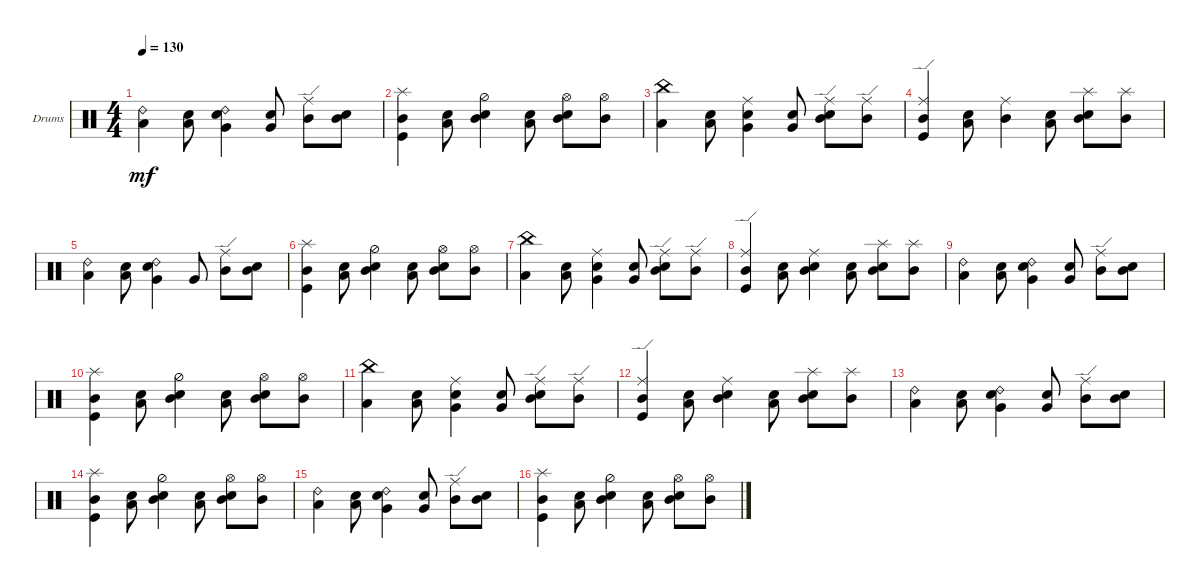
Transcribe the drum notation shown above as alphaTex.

\defaultSystemsLayout 4
\bracketExtendMode groupsimilarinstruments
\firstSystemTrackNameOrientation horizontal
\otherSystemsTrackNameOrientation horizontal
\track ("Drumkit" "Drums") {instrument percussion}
\staff {score}
\articulation defaults
\ts (4 4)
\tempo 130
\clef neutral
\ks c
("Low Tom (hit)" "Ride (bell) 2").4{dy mf} ("Low Tom (hit)" "Snare (hit) 2").8 ("Very Low Tom (hit)" "Snare (hit) 2" "Ride (bell) 2").4 ("Very Low Tom (hit)" "Snare (hit) 2").8 ("Mid Tom (hit)" "Ride (edge)").8 ("Mid Tom (hit)" "Snare (hit) 2").8 |
("Mid Tom (hit)" "Kick (hit)" "Splash (hit)").4 ("Low Tom (hit)" "Snare (hit) 2").8 ("Mid Tom (hit)" "Snare (hit) 2" "Hi-Hat (half)").4 ("Low Tom (hit)" "Snare (hit) 2").8 ("Mid Tom (hit)" "Snare (hit) 2" "Hi-Hat (open)").8 ("Mid Tom (hit)" "Hi-Hat (open)").8 |
("Low Tom (hit)" "China (hit)").4 ("Low Tom (hit)" "Snare (hit) 2").8 ("Very Low Tom (hit)" "Snare (hit) 2" "Ride (middle)").4 ("Very Low Tom (hit)" "Snare (hit) 2").8 ("Mid Tom (hit)" "Snare (hit) 2" "Ride (edge)").8 ("Mid Tom (hit)" "Ride (edge)").8 |
("Mid Tom (hit)" "Kick (hit)" "Ride (edge)").4 ("Low Tom (hit)" "Snare (hit) 2").8 ("Mid Tom (hit)" "Ride (middle)").4 ("Low Tom (hit)" "Snare (hit) 2").8 ("Mid Tom (hit)" "Snare (hit) 2" "Splash (hit)").8 ("Mid Tom (hit)" "Splash (hit)").8 |
("Low Tom (hit)" "Ride (bell) 2").4 ("Low Tom (hit)" "Snare (hit) 2").8 ("Very Low Tom (hit)" "Snare (hit) 2" "Ride (bell) 2").4 "Very Low Tom (hit)".8 ("Mid Tom (hit)" "Ride (edge)").8 ("Mid Tom (hit)" "Snare (hit) 2").8 |
("Mid Tom (hit)" "Kick (hit)" "Splash (hit)").4 ("Low Tom (hit)" "Snare (hit) 2").8 ("Mid Tom (hit)" "Snare (hit) 2" "Hi-Hat (half)").4 ("Low Tom (hit)" "Snare (hit) 2").8 ("Mid Tom (hit)" "Snare (hit) 2" "Hi-Hat (open)").8 ("Mid Tom (hit)" "Hi-Hat (open)").8 |
("Low Tom (hit)" "China (hit)").4 ("Low Tom (hit)" "Snare (hit) 2").8 ("Very Low Tom (hit)" "Snare (hit) 2" "Ride (middle)").4 ("Very Low Tom (hit)" "Snare (hit) 2").8 ("Mid Tom (hit)" "Snare (hit) 2" "Ride (edge)").8 ("Mid Tom (hit)" "Ride (edge)").8 |
("Mid Tom (hit)" "Kick (hit)" "Ride (edge)").4 ("Low Tom (hit)" "Snare (hit) 2").8 ("Mid Tom (hit)" "Snare (hit) 2" "Ride (middle)").4 ("Low Tom (hit)" "Snare (hit) 2").8 ("Mid Tom (hit)" "Snare (hit) 2" "Splash (hit)").8 ("Mid Tom (hit)" "Splash (hit)").8 |
("Low Tom (hit)" "Ride (bell) 2").4 ("Low Tom (hit)" "Snare (hit) 2").8 ("Very Low Tom (hit)" "Snare (hit) 2" "Ride (bell) 2").4 ("Very Low Tom (hit)" "Snare (hit) 2").8 ("Mid Tom (hit)" "Ride (edge)").8 ("Mid Tom (hit)" "Snare (hit) 2").8 |
("Mid Tom (hit)" "Kick (hit)" "Splash (hit)").4 ("Low Tom (hit)" "Snare (hit) 2").8 ("Mid Tom (hit)" "Snare (hit) 2" "Hi-Hat (half)").4 ("Low Tom (hit)" "Snare (hit) 2").8 ("Mid Tom (hit)" "Snare (hit) 2" "Hi-Hat (open)").8 ("Mid Tom (hit)" "Hi-Hat (open)").8 |
("Low Tom (hit)" "China (hit)").4 ("Low Tom (hit)" "Snare (hit) 2").8 ("Very Low Tom (hit)" "Snare (hit) 2" "Ride (middle)").4 ("Very Low Tom (hit)" "Snare (hit) 2").8 ("Mid Tom (hit)" "Snare (hit) 2" "Ride (edge)").8 ("Mid Tom (hit)" "Ride (edge)").8 |
("Mid Tom (hit)" "Kick (hit)" "Ride (edge)").4 ("Low Tom (hit)" "Snare (hit) 2").8 ("Mid Tom (hit)" "Snare (hit) 2" "Ride (middle)").4 ("Low Tom (hit)" "Snare (hit) 2").8 ("Mid Tom (hit)" "Snare (hit) 2" "Splash (hit)").8 ("Mid Tom (hit)" "Splash (hit)").8 |
("Low Tom (hit)" "Ride (bell) 2").4 ("Low Tom (hit)" "Snare (hit) 2").8 ("Very Low Tom (hit)" "Snare (hit) 2" "Ride (bell) 2").4 ("Very Low Tom (hit)" "Snare (hit) 2").8 ("Mid Tom (hit)" "Ride (edge)").8 ("Mid Tom (hit)" "Snare (hit) 2").8 |
("Mid Tom (hit)" "Kick (hit)" "Splash (hit)").4 ("Low Tom (hit)" "Snare (hit) 2").8 ("Mid Tom (hit)" "Snare (hit) 2" "Hi-Hat (half)").4 ("Low Tom (hit)" "Snare (hit) 2").8 ("Mid Tom (hit)" "Snare (hit) 2" "Hi-Hat (open)").8 ("Mid Tom (hit)" "Hi-Hat (open)").8 |
("Low Tom (hit)" "Ride (bell) 2").4 ("Low Tom (hit)" "Snare (hit) 2").8 ("Very Low Tom (hit)" "Snare (hit) 2" "Ride (bell) 2").4 ("Very Low Tom (hit)" "Snare (hit) 2").8 ("Mid Tom (hit)" "Ride (edge)").8 ("Mid Tom (hit)" "Snare (hit) 2").8 |
("Mid Tom (hit)" "Kick (hit)" "Splash (hit)").4 ("Low Tom (hit)" "Snare (hit) 2").8 ("Mid Tom (hit)" "Snare (hit) 2" "Hi-Hat (half)").4 ("Low Tom (hit)" "Snare (hit) 2").8 ("Mid Tom (hit)" "Snare (hit) 2" "Hi-Hat (open)").8 ("Mid Tom (hit)" "Hi-Hat (open)").8
